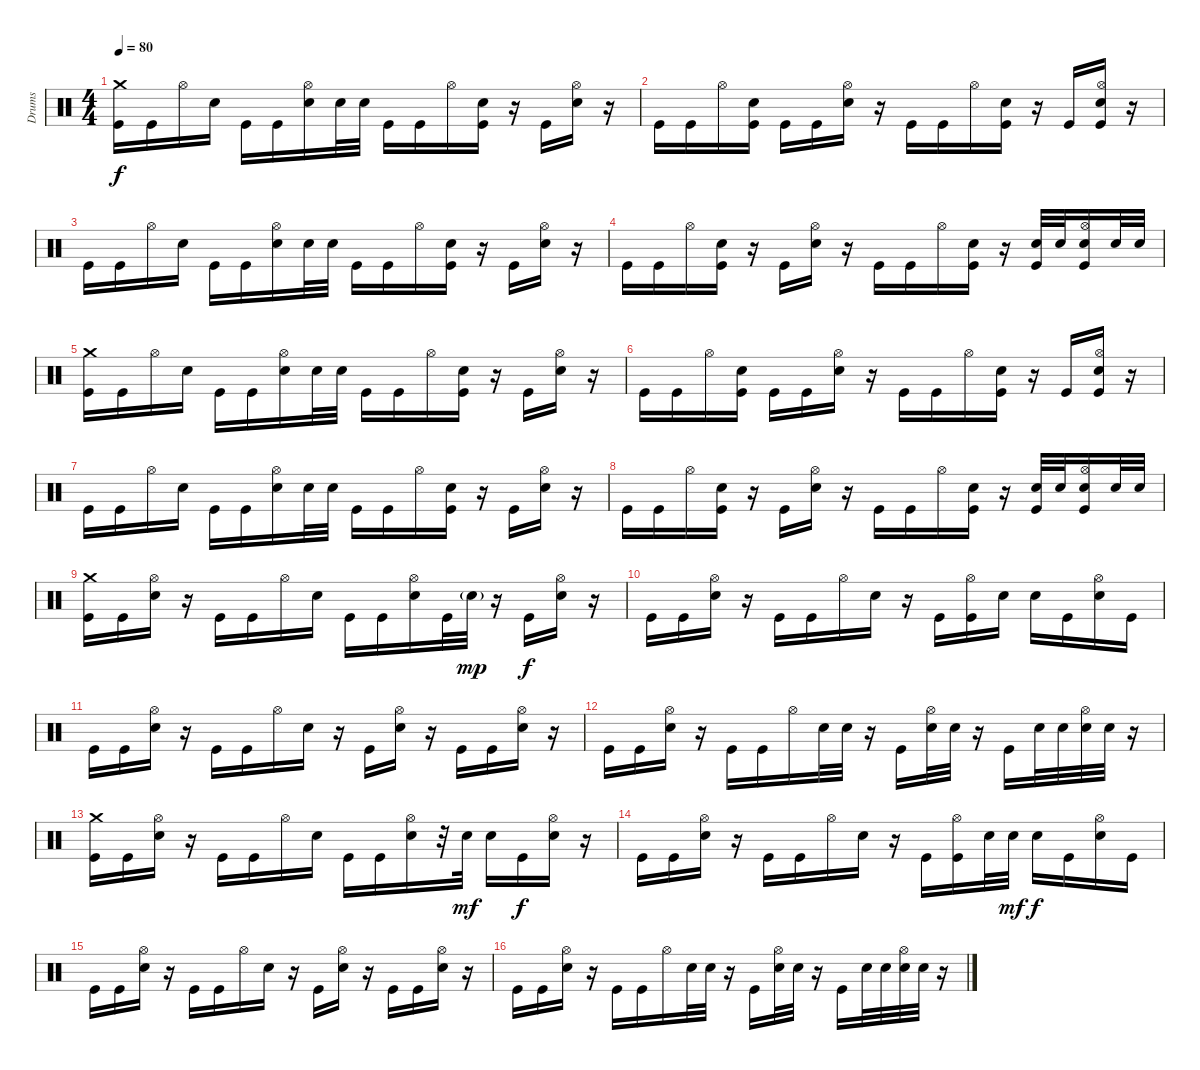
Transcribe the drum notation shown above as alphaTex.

\track ("Drums" "Drums") {instrument percussion}
\staff {score}
\articulation defaults
\ts (4 4)
\tempo 80
\clef neutral
\ks c
("Crash medium (hit)" "Kick (hit)").16{dy f} "Kick (hit)".16 "Hi-Hat (open)".16 "Electric Snare (hit)".16 "Kick (hit)".16 "Kick (hit)".16 ("Hi-Hat (open)" "Electric Snare (hit)").16 "Electric Snare (hit)".32 "Electric Snare (hit)".32 "Kick (hit)".16 "Kick (hit)".16 "Hi-Hat (open)".16 ("Electric Snare (hit)" "Kick (hit)").16 r.16 "Kick (hit)".16 ("Hi-Hat (open)" "Electric Snare (hit)").16 r.16 |
"Kick (hit)".16 "Kick (hit)".16 "Hi-Hat (open)".16 ("Electric Snare (hit)" "Kick (hit)").16 "Kick (hit)".16 "Kick (hit)".16 ("Hi-Hat (open)" "Electric Snare (hit)").16 r.16 "Kick (hit)".16 "Kick (hit)".16 "Hi-Hat (open)".16 ("Electric Snare (hit)" "Kick (hit)").16 r.16 "Kick (hit)".16 ("Hi-Hat (open)" "Electric Snare (hit)" "Kick (hit)").16 r.16 |
"Kick (hit)".16 "Kick (hit)".16 "Hi-Hat (open)".16 "Electric Snare (hit)".16 "Kick (hit)".16 "Kick (hit)".16 ("Hi-Hat (open)" "Electric Snare (hit)").16 "Electric Snare (hit)".32 "Electric Snare (hit)".32 "Kick (hit)".16 "Kick (hit)".16 "Hi-Hat (open)".16 ("Electric Snare (hit)" "Kick (hit)").16 r.16 "Kick (hit)".16 ("Hi-Hat (open)" "Electric Snare (hit)").16 r.16 |
"Kick (hit)".16 "Kick (hit)".16 "Hi-Hat (open)".16 ("Electric Snare (hit)" "Kick (hit)").16 r.16 "Kick (hit)".16 ("Hi-Hat (open)" "Electric Snare (hit)").16 r.16 "Kick (hit)".16 "Kick (hit)".16 "Hi-Hat (open)".16 ("Electric Snare (hit)" "Kick (hit)").16 r.16 ("Electric Snare (hit)" "Kick (hit)").32 "Electric Snare (hit)".32 ("Hi-Hat (open)" "Electric Snare (hit)" "Kick (hit)").16 "Electric Snare (hit)".32 "Electric Snare (hit)".32 |
("Crash medium (hit)" "Kick (hit)").16 "Kick (hit)".16 "Hi-Hat (open)".16 "Electric Snare (hit)".16 "Kick (hit)".16 "Kick (hit)".16 ("Hi-Hat (open)" "Electric Snare (hit)").16 "Electric Snare (hit)".32 "Electric Snare (hit)".32 "Kick (hit)".16 "Kick (hit)".16 "Hi-Hat (open)".16 ("Electric Snare (hit)" "Kick (hit)").16 r.16 "Kick (hit)".16 ("Hi-Hat (open)" "Electric Snare (hit)").16 r.16 |
"Kick (hit)".16 "Kick (hit)".16 "Hi-Hat (open)".16 ("Electric Snare (hit)" "Kick (hit)").16 "Kick (hit)".16 "Kick (hit)".16 ("Hi-Hat (open)" "Electric Snare (hit)").16 r.16 "Kick (hit)".16 "Kick (hit)".16 "Hi-Hat (open)".16 ("Electric Snare (hit)" "Kick (hit)").16 r.16 "Kick (hit)".16 ("Hi-Hat (open)" "Electric Snare (hit)" "Kick (hit)").16 r.16 |
"Kick (hit)".16 "Kick (hit)".16 "Hi-Hat (open)".16 "Electric Snare (hit)".16 "Kick (hit)".16 "Kick (hit)".16 ("Hi-Hat (open)" "Electric Snare (hit)").16 "Electric Snare (hit)".32 "Electric Snare (hit)".32 "Kick (hit)".16 "Kick (hit)".16 "Hi-Hat (open)".16 ("Electric Snare (hit)" "Kick (hit)").16 r.16 "Kick (hit)".16 ("Hi-Hat (open)" "Electric Snare (hit)").16 r.16 |
"Kick (hit)".16 "Kick (hit)".16 "Hi-Hat (open)".16 ("Electric Snare (hit)" "Kick (hit)").16 r.16 "Kick (hit)".16 ("Hi-Hat (open)" "Electric Snare (hit)").16 r.16 "Kick (hit)".16 "Kick (hit)".16 "Hi-Hat (open)".16 ("Electric Snare (hit)" "Kick (hit)").16 r.16 ("Electric Snare (hit)" "Kick (hit)").32 "Electric Snare (hit)".32 ("Hi-Hat (open)" "Electric Snare (hit)" "Kick (hit)").16 "Electric Snare (hit)".32 "Electric Snare (hit)".32 |
("Crash medium (hit)" "Kick (hit)").16 "Kick (hit)".16 ("Hi-Hat (open)" "Electric Snare (hit)").16 r.16 "Kick (hit)".16 "Kick (hit)".16 "Hi-Hat (open)".16 "Electric Snare (hit)".16 "Kick (hit)".16 "Kick (hit)".16 ("Hi-Hat (open)" "Electric Snare (hit)").16 "Kick (hit)".32 "Electric Snare (hit)"{g}.32{dy mp} r.16 "Kick (hit)".16{dy f} ("Hi-Hat (open)" "Electric Snare (hit)").16 r.16 |
"Kick (hit)".16 "Kick (hit)".16 ("Hi-Hat (open)" "Electric Snare (hit)").16 r.16 "Kick (hit)".16 "Kick (hit)".16 "Hi-Hat (open)".16 "Electric Snare (hit)".16 r.16 "Kick (hit)".16 ("Hi-Hat (open)" "Kick (hit)").16 "Electric Snare (hit)".16 "Electric Snare (hit)".16 "Kick (hit)".16 ("Hi-Hat (open)" "Electric Snare (hit)").16 "Kick (hit)".16 |
"Kick (hit)".16 "Kick (hit)".16 ("Hi-Hat (open)" "Electric Snare (hit)").16 r.16 "Kick (hit)".16 "Kick (hit)".16 "Hi-Hat (open)".16 "Electric Snare (hit)".16 r.16 "Kick (hit)".16 ("Hi-Hat (open)" "Electric Snare (hit)").16 r.16 "Kick (hit)".16 "Kick (hit)".16 ("Hi-Hat (open)" "Electric Snare (hit)").16 r.16 |
"Kick (hit)".16 "Kick (hit)".16 ("Hi-Hat (open)" "Electric Snare (hit)").16 r.16 "Kick (hit)".16 "Kick (hit)".16 "Hi-Hat (open)".16 "Electric Snare (hit)".32 "Electric Snare (hit)".32 r.16 "Kick (hit)".16 ("Hi-Hat (open)" "Electric Snare (hit)").32 "Electric Snare (hit)".32 r.16 "Kick (hit)".16 "Electric Snare (hit)".32 "Electric Snare (hit)".32 ("Hi-Hat (open)" "Electric Snare (hit)").32 "Electric Snare (hit)".32 r.16 |
("Crash medium (hit)" "Kick (hit)").16 "Kick (hit)".16 ("Hi-Hat (open)" "Electric Snare (hit)").16 r.16 "Kick (hit)".16 "Kick (hit)".16 "Hi-Hat (open)".16 "Electric Snare (hit)".16 "Kick (hit)".16 "Kick (hit)".16 ("Hi-Hat (open)" "Electric Snare (hit)").16 r.32 "Electric Snare (hit)".32{dy mf} "Electric Snare (hit)".16 "Kick (hit)".16{dy f} ("Hi-Hat (open)" "Electric Snare (hit)").16 r.16 |
"Kick (hit)".16 "Kick (hit)".16 ("Hi-Hat (open)" "Electric Snare (hit)").16 r.16 "Kick (hit)".16 "Kick (hit)".16 "Hi-Hat (open)".16 "Electric Snare (hit)".16 r.16 "Kick (hit)".16 ("Hi-Hat (open)" "Kick (hit)").16 "Electric Snare (hit)".32 "Electric Snare (hit)".32{dy mf} "Electric Snare (hit)".16{dy f} "Kick (hit)".16 ("Hi-Hat (open)" "Electric Snare (hit)").16 "Kick (hit)".16 |
"Kick (hit)".16 "Kick (hit)".16 ("Hi-Hat (open)" "Electric Snare (hit)").16 r.16 "Kick (hit)".16 "Kick (hit)".16 "Hi-Hat (open)".16 "Electric Snare (hit)".16 r.16 "Kick (hit)".16 ("Hi-Hat (open)" "Electric Snare (hit)").16 r.16 "Kick (hit)".16 "Kick (hit)".16 ("Hi-Hat (open)" "Electric Snare (hit)").16 r.16 |
"Kick (hit)".16 "Kick (hit)".16 ("Hi-Hat (open)" "Electric Snare (hit)").16 r.16 "Kick (hit)".16 "Kick (hit)".16 "Hi-Hat (open)".16 "Electric Snare (hit)".32 "Electric Snare (hit)".32 r.16 "Kick (hit)".16 ("Hi-Hat (open)" "Electric Snare (hit)").32 "Electric Snare (hit)".32 r.16 "Kick (hit)".16 "Electric Snare (hit)".32 "Electric Snare (hit)".32 ("Hi-Hat (open)" "Electric Snare (hit)").32 "Electric Snare (hit)".32 r.16
